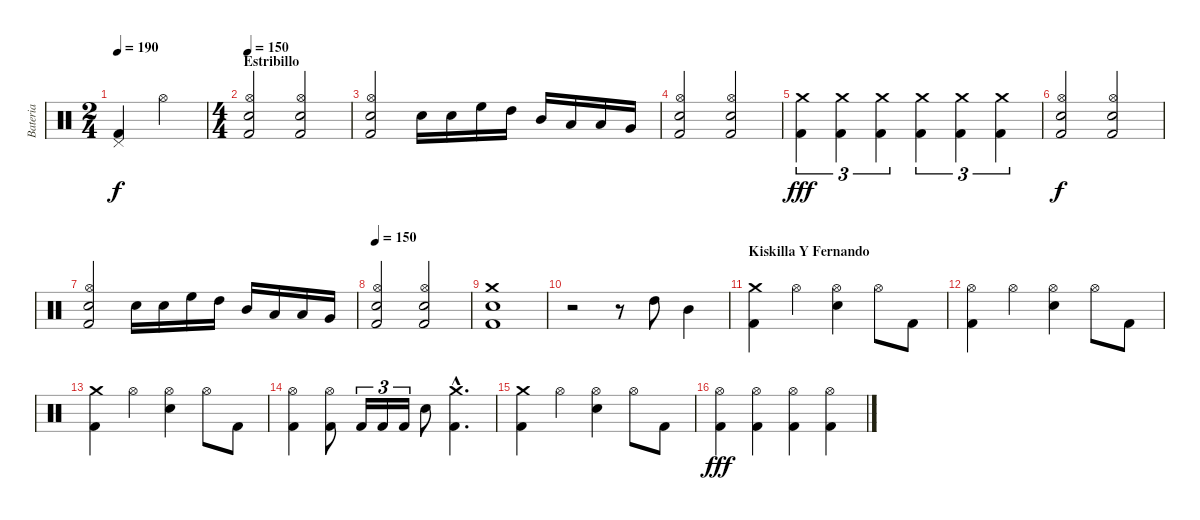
\track ("Bateria" "Bateria") {instrument percussion}
\staff {score}
\articulation defaults
\ts (2 4)
\tempo 190
\clef neutral
\ks c
("Kick (hit) 2" "Pedal Hi-Hat (hit)").4{dy f} "Hi-Hat (open)".4 |
\ts (4 4)
\section ("" "Estribillo")
\tempo 150
("Snare (hit) 2" "Kick (hit) 2" "Hi-Hat (open)").2 ("Snare (hit) 2" "Kick (hit) 2" "Hi-Hat (open)").2 |
("Snare (hit) 2" "Kick (hit) 2" "Hi-Hat (open)").2 "Snare (hit) 2".16 "Snare (hit) 2".16 "High Floor Tom (hit)".16 "High Tom (hit)".16 "Mid Tom (hit)".16 "Low Tom (hit)".16 "Low Tom (hit)".16 "Very Low Tom (hit)".16 |
("Snare (hit) 2" "Kick (hit) 2" "Hi-Hat (open)").2 ("Snare (hit) 2" "Kick (hit) 2" "Hi-Hat (open)").2 |
("Kick (hit) 2" "Crash medium (hit)").4{tu (3 2) dy fff} ("Kick (hit) 2" "Crash medium (hit)").4{tu (3 2)} ("Kick (hit) 2" "Crash medium (hit)").4{tu (3 2)} ("Kick (hit) 2" "Crash medium (hit)").4{tu (3 2)} ("Kick (hit) 2" "Crash medium (hit)").4{tu (3 2)} ("Kick (hit) 2" "Crash medium (hit)").4{tu (3 2)} |
("Snare (hit) 2" "Kick (hit) 2" "Hi-Hat (open)").2{dy f} ("Snare (hit) 2" "Kick (hit) 2" "Hi-Hat (open)").2 |
("Snare (hit) 2" "Kick (hit) 2" "Hi-Hat (open)").2 "Snare (hit) 2".16 "Snare (hit) 2".16 "High Floor Tom (hit)".16 "High Tom (hit)".16 "Mid Tom (hit)".16 "Low Tom (hit)".16 "Low Tom (hit)".16 "Very Low Tom (hit)".16 |
\tempo 150
("Snare (hit) 2" "Kick (hit) 2" "Hi-Hat (open)").2 ("Snare (hit) 2" "Kick (hit) 2" "Hi-Hat (open)").2 |
("Snare (hit) 2" "Crash medium (hit)" "Kick (hit) 2").1 |
r.2 r.8 "High Tom (hit)".8 "Mid Tom (hit)".4 |
\section ("" "Kiskilla Y Fernando")
("Crash medium (hit)" "Kick (hit) 2").4 "Hi-Hat (open)".4 ("Hi-Hat (open)" "Snare (hit) 2").4 "Hi-Hat (open)".8 "Kick (hit) 2".8 |
("Hi-Hat (open)" "Kick (hit) 2").4 "Hi-Hat (open)".4 ("Hi-Hat (open)" "Snare (hit) 2").4 "Hi-Hat (open)".8 "Kick (hit) 2".8 |
("Crash medium (hit)" "Kick (hit) 2").4 "Hi-Hat (open)".4 ("Hi-Hat (open)" "Snare (hit) 2").4 "Hi-Hat (open)".8 "Kick (hit) 2".8 |
("Hi-Hat (open)" "Kick (hit) 2").4 ("Hi-Hat (open)" "Kick (hit) 2").8 "Kick (hit) 2".16{tu (3 2)} "Kick (hit) 2".16{tu (3 2)} "Kick (hit) 2".16{tu (3 2)} "Snare (hit) 2".8 ("Kick (hit) 2"{hac} "Crash medium (hit)"{hac}).4{d} |
("Crash medium (hit)" "Kick (hit) 2").4 "Hi-Hat (open)".4 ("Hi-Hat (open)" "Snare (hit) 2").4 "Hi-Hat (open)".8 "Kick (hit) 2".8 |
("Kick (hit) 2" "Hi-Hat (open)").4{dy fff} ("Kick (hit) 2" "Hi-Hat (open)").4 ("Kick (hit) 2" "Hi-Hat (open)").4 ("Kick (hit) 2" "Hi-Hat (open)").4
